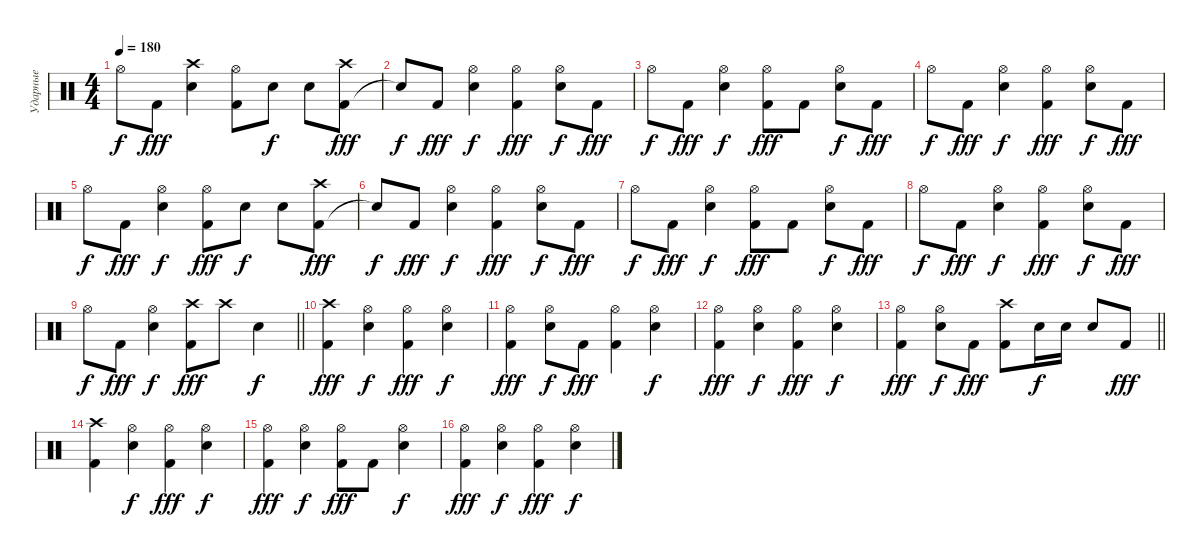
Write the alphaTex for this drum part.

\track ("Ударные" "Ударные") {instrument percussion}
\staff {score}
\articulation defaults
\ts (4 4)
\tempo 180
\clef neutral
\ks c "Hi-Hat (open)".8{dy f} "Kick (hit) 2".8{dy fff}
("Snare (hit) 2" "Crash high (hit)").4 ("Kick (hit) 2" "Hi-Hat (open)").8 "Snare (hit) 2".8{dy f} "Snare (hit) 2".8 ("Kick (hit) 2" "Crash high (hit)").8{dy fff} |
"Snare (hit)"{t}.8{dy f} "Kick (hit) 2".8{dy fff} ("Snare (hit) 2" "Hi-Hat (open)").4{dy f} ("Kick (hit) 2" "Hi-Hat (open)").4{dy fff} ("Snare (hit) 2" "Hi-Hat (open)").8{dy f} "Kick (hit) 2".8{dy fff} |
"Hi-Hat (open)".8{dy f} "Kick (hit) 2".8{dy fff} ("Snare (hit) 2" "Hi-Hat (open)").4{dy f} ("Kick (hit) 2" "Hi-Hat (open)").8{dy fff} "Kick (hit) 2".8 ("Snare (hit) 2" "Hi-Hat (open)").8{dy f} "Kick (hit) 2".8{dy fff} |
"Hi-Hat (open)".8{dy f} "Kick (hit) 2".8{dy fff} ("Snare (hit) 2" "Hi-Hat (open)").4{dy f} ("Kick (hit) 2" "Hi-Hat (open)").4{dy fff} ("Snare (hit) 2" "Hi-Hat (open)").8{dy f} "Kick (hit) 2".8{dy fff} |
"Hi-Hat (open)".8{dy f} "Kick (hit) 2".8{dy fff} ("Snare (hit) 2" "Hi-Hat (open)").4{dy f} ("Kick (hit) 2" "Hi-Hat (open)").8{dy fff} "Snare (hit) 2".8{dy f} "Snare (hit) 2".8 ("Kick (hit) 2" "Crash high (hit)").8{dy fff} |
"Snare (hit)"{t}.8{dy f} "Kick (hit) 2".8{dy fff} ("Snare (hit) 2" "Hi-Hat (open)").4{dy f} ("Kick (hit) 2" "Hi-Hat (open)").4{dy fff} ("Snare (hit) 2" "Hi-Hat (open)").8{dy f} "Kick (hit) 2".8{dy fff} |
"Hi-Hat (open)".8{dy f} "Kick (hit) 2".8{dy fff} ("Snare (hit) 2" "Hi-Hat (open)").4{dy f} ("Kick (hit) 2" "Hi-Hat (open)").8{dy fff} "Kick (hit) 2".8 ("Snare (hit) 2" "Hi-Hat (open)").8{dy f} "Kick (hit) 2".8{dy fff} |
"Hi-Hat (open)".8{dy f} "Kick (hit) 2".8{dy fff} ("Snare (hit) 2" "Hi-Hat (open)").4{dy f} ("Kick (hit) 2" "Hi-Hat (open)").4{dy fff} ("Snare (hit) 2" "Hi-Hat (open)").8{dy f} "Kick (hit) 2".8{dy fff} |
\barLineRight lightlight "Hi-Hat (open)".8{dy f} "Kick (hit) 2".8{dy fff}
("Snare (hit) 2" "Hi-Hat (open)").4{dy f} ("Kick (hit) 2" "Crash high (hit)").8{dy fff} "Crash high (hit)".8 "Snare (hit) 2".4{dy f} |
("Kick (hit) 2" "Crash high (hit)").4{dy fff} ("Snare (hit) 2" "Hi-Hat (open)").4{dy f} ("Kick (hit) 2" "Hi-Hat (open)").4{dy fff} ("Snare (hit) 2" "Hi-Hat (open)").4{dy f} |
("Kick (hit) 2" "Hi-Hat (open)").4{dy fff} ("Snare (hit) 2" "Hi-Hat (open)").8{dy f} "Kick (hit) 2".8{dy fff} ("Kick (hit) 2" "Hi-Hat (open)").4 ("Snare (hit) 2" "Hi-Hat (open)").4{dy f} |
("Kick (hit) 2" "Hi-Hat (open)").4{dy fff} ("Snare (hit) 2" "Hi-Hat (open)").4{dy f} ("Kick (hit) 2" "Hi-Hat (open)").4{dy fff} ("Snare (hit) 2" "Hi-Hat (open)").4{dy f} |
\barLineRight lightlight
("Kick (hit) 2" "Hi-Hat (open)").4{dy fff} ("Snare (hit) 2" "Hi-Hat (open)").8{dy f} "Kick (hit) 2".8{dy fff} ("Kick (hit) 2" "Crash high (hit)").8 "Snare (hit) 2".16{dy f} "Snare (hit) 2".16 "Snare (hit) 2".8 "Kick (hit) 2".8{dy fff} |
("Kick (hit) 2" "Crash high (hit)").4 ("Snare (hit) 2" "Hi-Hat (open)").4{dy f} ("Kick (hit) 2" "Hi-Hat (open)").4{dy fff} ("Snare (hit) 2" "Hi-Hat (open)").4{dy f} |
("Kick (hit) 2" "Hi-Hat (open)").4{dy fff} ("Snare (hit) 2" "Hi-Hat (open)").4{dy f} ("Kick (hit) 2" "Hi-Hat (open)").8{dy fff} "Kick (hit) 2".8 ("Snare (hit) 2" "Hi-Hat (open)").4{dy f} |
("Kick (hit) 2" "Hi-Hat (open)").4{dy fff} ("Snare (hit) 2" "Hi-Hat (open)").4{dy f} ("Kick (hit) 2" "Hi-Hat (open)").4{dy fff} ("Snare (hit) 2" "Hi-Hat (open)").4{dy f}
